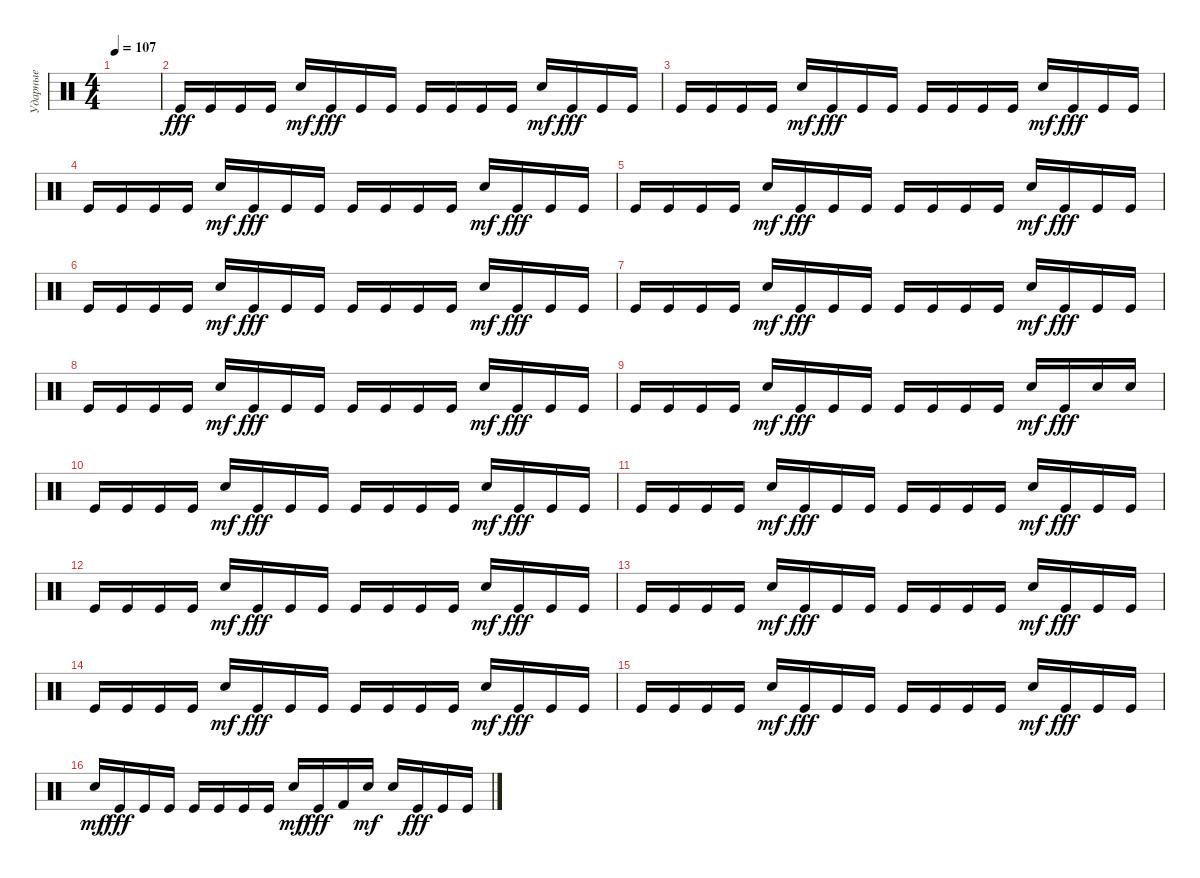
\track ("Ударные" "Ударные") {instrument percussion}
\staff {score}
\articulation defaults
\ts (4 4)
\tempo 107
\clef neutral
\ks c
|
"Kick (hit)".16{dy fff} "Kick (hit)".16 "Kick (hit)".16 "Kick (hit)".16 "Electric Snare (hit)".16{dy mf} "Kick (hit)".16{dy fff} "Kick (hit)".16 "Kick (hit)".16 "Kick (hit)".16 "Kick (hit)".16 "Kick (hit)".16 "Kick (hit)".16 "Electric Snare (hit)".16{dy mf} "Kick (hit)".16{dy fff} "Kick (hit)".16 "Kick (hit)".16 |
"Kick (hit)".16 "Kick (hit)".16 "Kick (hit)".16 "Kick (hit)".16 "Electric Snare (hit)".16{dy mf} "Kick (hit)".16{dy fff} "Kick (hit)".16 "Kick (hit)".16 "Kick (hit)".16 "Kick (hit)".16 "Kick (hit)".16 "Kick (hit)".16 "Electric Snare (hit)".16{dy mf} "Kick (hit)".16{dy fff} "Kick (hit)".16 "Kick (hit)".16 |
"Kick (hit)".16 "Kick (hit)".16 "Kick (hit)".16 "Kick (hit)".16 "Electric Snare (hit)".16{dy mf} "Kick (hit)".16{dy fff} "Kick (hit)".16 "Kick (hit)".16 "Kick (hit)".16 "Kick (hit)".16 "Kick (hit)".16 "Kick (hit)".16 "Electric Snare (hit)".16{dy mf} "Kick (hit)".16{dy fff} "Kick (hit)".16 "Kick (hit)".16 |
"Kick (hit)".16 "Kick (hit)".16 "Kick (hit)".16 "Kick (hit)".16 "Electric Snare (hit)".16{dy mf} "Kick (hit)".16{dy fff} "Kick (hit)".16 "Kick (hit)".16 "Kick (hit)".16 "Kick (hit)".16 "Kick (hit)".16 "Kick (hit)".16 "Electric Snare (hit)".16{dy mf} "Kick (hit)".16{dy fff} "Kick (hit)".16 "Kick (hit)".16 |
"Kick (hit)".16 "Kick (hit)".16 "Kick (hit)".16 "Kick (hit)".16 "Electric Snare (hit)".16{dy mf} "Kick (hit)".16{dy fff} "Kick (hit)".16 "Kick (hit)".16 "Kick (hit)".16 "Kick (hit)".16 "Kick (hit)".16 "Kick (hit)".16 "Electric Snare (hit)".16{dy mf} "Kick (hit)".16{dy fff} "Kick (hit)".16 "Kick (hit)".16 |
"Kick (hit)".16 "Kick (hit)".16 "Kick (hit)".16 "Kick (hit)".16 "Electric Snare (hit)".16{dy mf} "Kick (hit)".16{dy fff} "Kick (hit)".16 "Kick (hit)".16 "Kick (hit)".16 "Kick (hit)".16 "Kick (hit)".16 "Kick (hit)".16 "Electric Snare (hit)".16{dy mf} "Kick (hit)".16{dy fff} "Kick (hit)".16 "Kick (hit)".16 |
"Kick (hit)".16 "Kick (hit)".16 "Kick (hit)".16 "Kick (hit)".16 "Electric Snare (hit)".16{dy mf} "Kick (hit)".16{dy fff} "Kick (hit)".16 "Kick (hit)".16 "Kick (hit)".16 "Kick (hit)".16 "Kick (hit)".16 "Kick (hit)".16 "Electric Snare (hit)".16{dy mf} "Kick (hit)".16{dy fff} "Kick (hit)".16 "Kick (hit)".16 |
"Kick (hit)".16 "Kick (hit)".16 "Kick (hit)".16 "Kick (hit)".16 "Electric Snare (hit)".16{dy mf} "Kick (hit)".16{dy fff} "Kick (hit)".16 "Kick (hit)".16 "Kick (hit)".16 "Kick (hit)".16 "Kick (hit)".16 "Kick (hit)".16 "Electric Snare (hit)".16{dy mf} "Kick (hit)".16{dy fff} "Electric Snare (hit)".16 "Electric Snare (hit)".16 |
"Kick (hit)".16 "Kick (hit)".16 "Kick (hit)".16 "Kick (hit)".16 "Electric Snare (hit)".16{dy mf} "Kick (hit)".16{dy fff} "Kick (hit)".16 "Kick (hit)".16 "Kick (hit)".16 "Kick (hit)".16 "Kick (hit)".16 "Kick (hit)".16 "Electric Snare (hit)".16{dy mf} "Kick (hit)".16{dy fff} "Kick (hit)".16 "Kick (hit)".16 |
"Kick (hit)".16 "Kick (hit)".16 "Kick (hit)".16 "Kick (hit)".16 "Electric Snare (hit)".16{dy mf} "Kick (hit)".16{dy fff} "Kick (hit)".16 "Kick (hit)".16 "Kick (hit)".16 "Kick (hit)".16 "Kick (hit)".16 "Kick (hit)".16 "Electric Snare (hit)".16{dy mf} "Kick (hit)".16{dy fff} "Kick (hit)".16 "Kick (hit)".16 |
"Kick (hit)".16 "Kick (hit)".16 "Kick (hit)".16 "Kick (hit)".16 "Electric Snare (hit)".16{dy mf} "Kick (hit)".16{dy fff} "Kick (hit)".16 "Kick (hit)".16 "Kick (hit)".16 "Kick (hit)".16 "Kick (hit)".16 "Kick (hit)".16 "Electric Snare (hit)".16{dy mf} "Kick (hit)".16{dy fff} "Kick (hit)".16 "Kick (hit)".16 |
"Kick (hit)".16 "Kick (hit)".16 "Kick (hit)".16 "Kick (hit)".16 "Electric Snare (hit)".16{dy mf} "Kick (hit)".16{dy fff} "Kick (hit)".16 "Kick (hit)".16 "Kick (hit)".16 "Kick (hit)".16 "Kick (hit)".16 "Kick (hit)".16 "Electric Snare (hit)".16{dy mf} "Kick (hit)".16{dy fff} "Kick (hit)".16 "Kick (hit)".16 |
"Kick (hit)".16 "Kick (hit)".16 "Kick (hit)".16 "Kick (hit)".16 "Electric Snare (hit)".16{dy mf} "Kick (hit)".16{dy fff} "Kick (hit)".16 "Kick (hit)".16 "Kick (hit)".16 "Kick (hit)".16 "Kick (hit)".16 "Kick (hit)".16 "Electric Snare (hit)".16{dy mf} "Kick (hit)".16{dy fff} "Kick (hit)".16 "Kick (hit)".16 |
"Kick (hit)".16 "Kick (hit)".16 "Kick (hit)".16 "Kick (hit)".16 "Electric Snare (hit)".16{dy mf} "Kick (hit)".16{dy fff} "Kick (hit)".16 "Kick (hit)".16 "Kick (hit)".16 "Kick (hit)".16 "Kick (hit)".16 "Kick (hit)".16 "Electric Snare (hit)".16{dy mf} "Kick (hit)".16{dy fff} "Kick (hit)".16 "Kick (hit)".16 |
"Electric Snare (hit)".16{dy mf} "Kick (hit)".16{dy fff} "Kick (hit)".16 "Kick (hit)".16 "Kick (hit)".16 "Kick (hit)".16 "Kick (hit)".16 "Kick (hit)".16 "Electric Snare (hit)".16{dy mf} "Kick (hit)".16{dy fff} "Kick (hit) 2".16 "Electric Snare (hit)".16{dy mf} "Electric Snare (hit)".16 "Kick (hit)".16{dy fff} "Kick (hit)".16 "Kick (hit)".16
